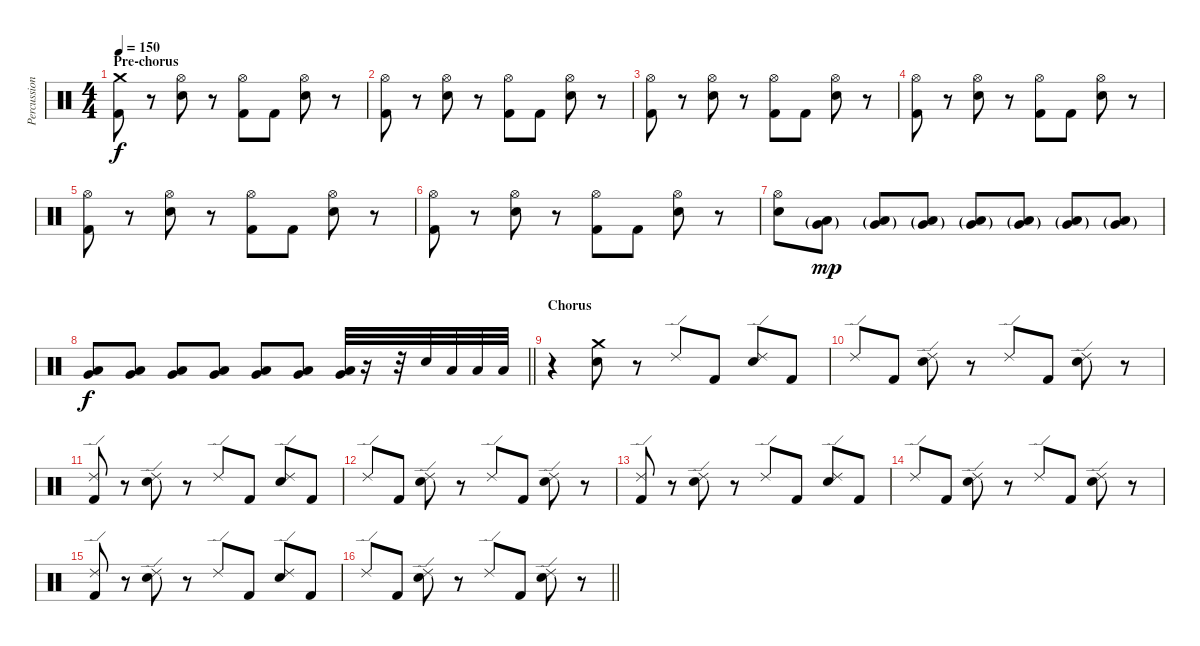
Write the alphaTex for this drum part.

\track ("Percussion" "Percussion") {instrument percussion}
\staff {score}
\articulation defaults
\ts (4 4)
\section ("" "Pre-chorus")
\tempo 150
\clef neutral
\ks c
("Crash medium (hit)" "Kick (hit) 2").8{dy f} r.8 ("Hi-Hat (open)" "Electric Snare (hit)").8 r.8 ("Hi-Hat (open)" "Kick (hit) 2").8 "Kick (hit) 2".8 ("Hi-Hat (open)" "Electric Snare (hit)").8 r.8 |
("Hi-Hat (open)" "Kick (hit) 2").8 r.8 ("Hi-Hat (open)" "Electric Snare (hit)").8 r.8 ("Hi-Hat (open)" "Kick (hit) 2").8 "Kick (hit) 2".8 ("Hi-Hat (open)" "Electric Snare (hit)").8 r.8 |
("Hi-Hat (open)" "Kick (hit) 2").8 r.8 ("Hi-Hat (open)" "Electric Snare (hit)").8 r.8 ("Hi-Hat (open)" "Kick (hit) 2").8 "Kick (hit) 2".8 ("Hi-Hat (open)" "Electric Snare (hit)").8 r.8 |
("Hi-Hat (open)" "Kick (hit) 2").8 r.8 ("Hi-Hat (open)" "Electric Snare (hit)").8 r.8 ("Hi-Hat (open)" "Kick (hit) 2").8 "Kick (hit) 2".8 ("Hi-Hat (open)" "Electric Snare (hit)").8 r.8 |
("Hi-Hat (open)" "Kick (hit) 2").8 r.8 ("Hi-Hat (open)" "Electric Snare (hit)").8 r.8 ("Hi-Hat (open)" "Kick (hit) 2").8 "Kick (hit) 2".8 ("Hi-Hat (open)" "Electric Snare (hit)").8 r.8 |
("Hi-Hat (open)" "Kick (hit) 2").8 r.8 ("Hi-Hat (open)" "Electric Snare (hit)").8 r.8 ("Hi-Hat (open)" "Kick (hit) 2").8 "Kick (hit) 2".8 ("Hi-Hat (open)" "Electric Snare (hit)").8 r.8 |
("Hi-Hat (open)" "Electric Snare (hit)").8 ("Very Low Tom (hit)"{g} "Low Tom (hit)"{g}).8{dy mp} ("Very Low Tom (hit)"{g} "Low Tom (hit)"{g}).8 ("Very Low Tom (hit)"{g} "Low Tom (hit)"{g}).8 ("Very Low Tom (hit)"{g} "Low Tom (hit)"{g}).8 ("Very Low Tom (hit)"{g} "Low Tom (hit)"{g}).8 ("Very Low Tom (hit)"{g} "Low Tom (hit)"{g}).8 ("Very Low Tom (hit)"{g} "Low Tom (hit)"{g}).8 |
\barLineRight lightlight
("Very Low Tom (hit)" "Low Tom (hit)").8{dy f} ("Very Low Tom (hit)" "Low Tom (hit)").8 ("Very Low Tom (hit)" "Low Tom (hit)").8 ("Very Low Tom (hit)" "Low Tom (hit)").8 ("Very Low Tom (hit)" "Low Tom (hit)").8 ("Very Low Tom (hit)" "Low Tom (hit)").8 ("Very Low Tom (hit)" "Low Tom (hit)").32 r.16 r.32 "Electric Snare (hit)".32 "Low Tom (hit)".32 "Low Tom (hit)".32 "Low Tom (hit)".32 |
\section ("" "Chorus")
r.4 ("Crash medium (hit)" "Electric Snare (hit)").8 r.8 "Ride (edge) 2".8 "Kick (hit) 2".8 ("Ride (edge) 2" "Electric Snare (hit)").8 "Kick (hit) 2".8 |
"Ride (edge) 2".8 "Kick (hit) 2".8 ("Ride (edge) 2" "Electric Snare (hit)").8 r.8 "Ride (edge) 2".8 "Kick (hit) 2".8 ("Ride (edge) 2" "Electric Snare (hit)").8 r.8 |
("Ride (edge) 2" "Kick (hit) 2").8 r.8 ("Ride (edge) 2" "Electric Snare (hit)").8 r.8 "Ride (edge) 2".8 "Kick (hit) 2".8 ("Ride (edge) 2" "Electric Snare (hit)").8 "Kick (hit) 2".8 |
"Ride (edge) 2".8 "Kick (hit) 2".8 ("Ride (edge) 2" "Electric Snare (hit)").8 r.8 "Ride (edge) 2".8 "Kick (hit) 2".8 ("Ride (edge) 2" "Electric Snare (hit)").8 r.8 |
("Ride (edge) 2" "Kick (hit) 2").8 r.8 ("Ride (edge) 2" "Electric Snare (hit)").8 r.8 "Ride (edge) 2".8 "Kick (hit) 2".8 ("Ride (edge) 2" "Electric Snare (hit)").8 "Kick (hit) 2".8 |
"Ride (edge) 2".8 "Kick (hit) 2".8 ("Ride (edge) 2" "Electric Snare (hit)").8 r.8 "Ride (edge) 2".8 "Kick (hit) 2".8 ("Ride (edge) 2" "Electric Snare (hit)").8 r.8 |
("Ride (edge) 2" "Kick (hit) 2").8 r.8 ("Ride (edge) 2" "Electric Snare (hit)").8 r.8 "Ride (edge) 2".8 "Kick (hit) 2".8 ("Ride (edge) 2" "Electric Snare (hit)").8 "Kick (hit) 2".8 |
\barLineRight lightlight "Ride (edge) 2".8 "Kick (hit) 2".8
("Ride (edge) 2" "Electric Snare (hit)").8 r.8 "Ride (edge) 2".8 "Kick (hit) 2".8 ("Ride (edge) 2" "Electric Snare (hit)").8 r.8
